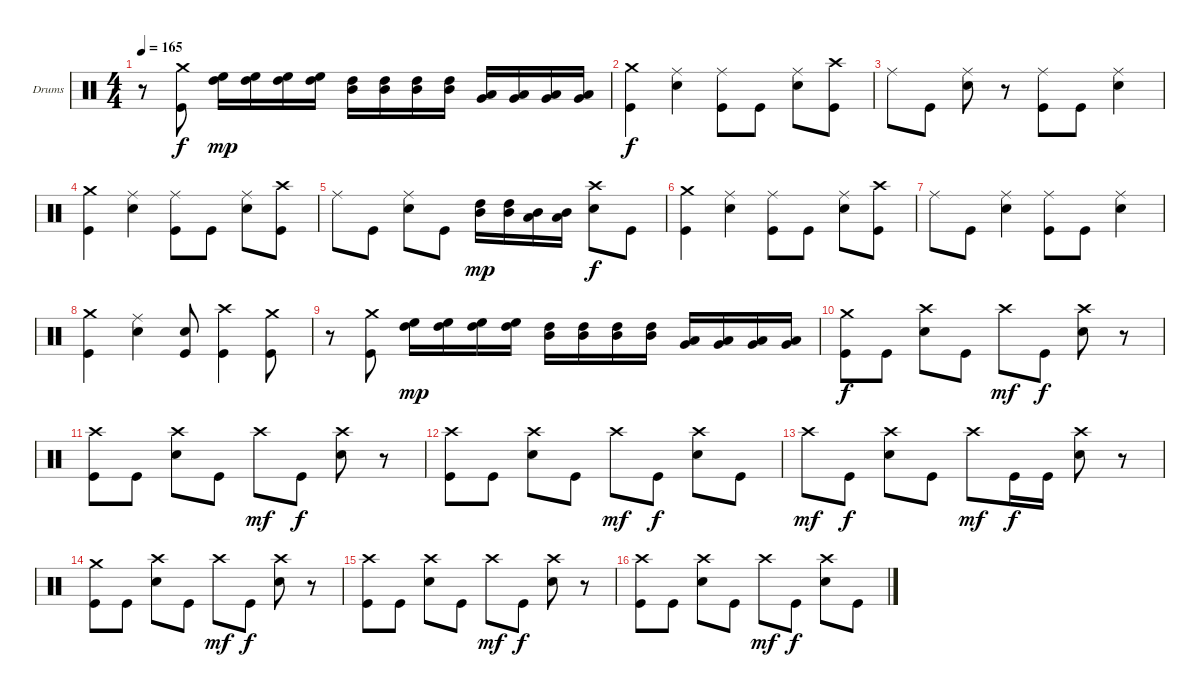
\bracketExtendMode groupsimilarinstruments
\firstSystemTrackNameOrientation horizontal
\otherSystemsTrackNameOrientation horizontal
\track ("Drumkit Midi" "Drums") {instrument percussion}
\staff {score}
\articulation defaults
\ts (4 4)
\tempo 165
\clef neutral
\ks c
r.8{dy f} ("Kick (hit)" "Crash medium (hit)").8 ("High Floor Tom (hit)" "High Tom (hit)").16{dy mp} ("High Floor Tom (hit)" "High Tom (hit)").16 ("High Floor Tom (hit)" "High Tom (hit)").16 ("High Floor Tom (hit)" "High Tom (hit)").16 ("High Tom (hit)" "Mid Tom (hit)").16 ("High Tom (hit)" "Mid Tom (hit)").16 ("High Tom (hit)" "Mid Tom (hit)").16 ("High Tom (hit)" "Mid Tom (hit)").16 ("Low Tom (hit)" "Very Low Tom (hit)").16 ("Low Tom (hit)" "Very Low Tom (hit)").16 ("Low Tom (hit)" "Very Low Tom (hit)").16 ("Low Tom (hit)" "Very Low Tom (hit)").16 |
("Kick (hit)" "Crash medium (hit)").4{dy f} ("Snare (hit) 2" "Ride (middle)").4 ("Kick (hit)" "Ride (middle)").8 "Kick (hit)".8 ("Snare (hit) 2" "Ride (middle)").8 ("Kick (hit)" "Crash high (hit)").8 |
"Ride (middle)".8 "Kick (hit)".8 ("Snare (hit) 2" "Ride (middle)").8 r.8 ("Kick (hit)" "Ride (middle)").8 "Kick (hit)".8 ("Snare (hit) 2" "Ride (middle)").4 |
("Kick (hit)" "Crash medium (hit)").4 ("Snare (hit) 2" "Ride (middle)").4 ("Kick (hit)" "Ride (middle)").8 "Kick (hit)".8 ("Snare (hit) 2" "Ride (middle)").8 ("Kick (hit)" "Crash high (hit)").8 |
"Ride (middle)".8 "Kick (hit)".8 ("Snare (hit) 2" "Ride (middle)").8 "Kick (hit)".8 ("High Tom (hit)" "Mid Tom (hit)").16{dy mp} ("High Tom (hit)" "Mid Tom (hit)").16 ("Mid Tom (hit)" "Low Tom (hit)").16 ("Mid Tom (hit)" "Low Tom (hit)").16 ("Snare (hit) 2" "Crash high (hit)").8{dy f} "Kick (hit)".8 |
("Kick (hit)" "Crash medium (hit)").4 ("Snare (hit) 2" "Ride (middle)").4 ("Kick (hit)" "Ride (middle)").8 "Kick (hit)".8 ("Snare (hit) 2" "Ride (middle)").8 ("Kick (hit)" "Crash high (hit)").8 |
"Ride (middle)".8 "Kick (hit)".8 ("Snare (hit) 2" "Ride (middle)").4 ("Kick (hit)" "Ride (middle)").8 "Kick (hit)".8 ("Snare (hit) 2" "Ride (middle)").4 |
("Kick (hit)" "Crash medium (hit)").4 ("Snare (hit) 2" "Ride (middle)").4 ("Kick (hit)" "Snare (hit) 2").8 ("Kick (hit)" "Crash high (hit)").4 ("Kick (hit)" "Crash medium (hit)").8 |
r.8 ("Kick (hit)" "Crash medium (hit)").8 ("High Floor Tom (hit)" "High Tom (hit)").16{dy mp} ("High Floor Tom (hit)" "High Tom (hit)").16 ("High Floor Tom (hit)" "High Tom (hit)").16 ("High Floor Tom (hit)" "High Tom (hit)").16 ("High Tom (hit)" "Mid Tom (hit)").16 ("High Tom (hit)" "Mid Tom (hit)").16 ("High Tom (hit)" "Mid Tom (hit)").16 ("High Tom (hit)" "Mid Tom (hit)").16 ("Low Tom (hit)" "Very Low Tom (hit)").16 ("Low Tom (hit)" "Very Low Tom (hit)").16 ("Low Tom (hit)" "Very Low Tom (hit)").16 ("Low Tom (hit)" "Very Low Tom (hit)").16 |
("Kick (hit)" "Crash medium (hit)").8{dy f} "Kick (hit)".8 ("Snare (hit) 2" "Crash high (hit)").8 "Kick (hit)".8 "Crash high (hit)".8{dy mf} "Kick (hit)".8{dy f} ("Snare (hit) 2" "Crash high (hit)").8 r.8 |
("Kick (hit)" "Crash high (hit)").8 "Kick (hit)".8 ("Snare (hit) 2" "Crash high (hit)").8 "Kick (hit)".8 "Crash high (hit)".8{dy mf} "Kick (hit)".8{dy f} ("Snare (hit) 2" "Crash high (hit)").8 r.8 |
("Kick (hit)" "Crash high (hit)").8 "Kick (hit)".8 ("Snare (hit) 2" "Crash high (hit)").8 "Kick (hit)".8 "Crash high (hit)".8{dy mf} "Kick (hit)".8{dy f} ("Snare (hit) 2" "Crash high (hit)").8 "Kick (hit)".8 |
"Crash high (hit)".8{dy mf} "Kick (hit)".8{dy f} ("Snare (hit) 2" "Crash high (hit)").8 "Kick (hit)".8 "Crash high (hit)".8{dy mf} "Kick (hit)".16{dy f} "Kick (hit)".16 ("Snare (hit) 2" "Crash high (hit)").8 r.8 |
("Kick (hit)" "Crash medium (hit)").8 "Kick (hit)".8 ("Snare (hit) 2" "Crash high (hit)").8 "Kick (hit)".8 "Crash high (hit)".8{dy mf} "Kick (hit)".8{dy f} ("Snare (hit) 2" "Crash high (hit)").8 r.8 |
("Kick (hit)" "Crash high (hit)").8 "Kick (hit)".8 ("Snare (hit) 2" "Crash high (hit)").8 "Kick (hit)".8 "Crash high (hit)".8{dy mf} "Kick (hit)".8{dy f} ("Snare (hit) 2" "Crash high (hit)").8 r.8 |
("Kick (hit)" "Crash high (hit)").8 "Kick (hit)".8 ("Snare (hit) 2" "Crash high (hit)").8 "Kick (hit)".8 "Crash high (hit)".8{dy mf} "Kick (hit)".8{dy f} ("Snare (hit) 2" "Crash high (hit)").8 "Kick (hit)".8
